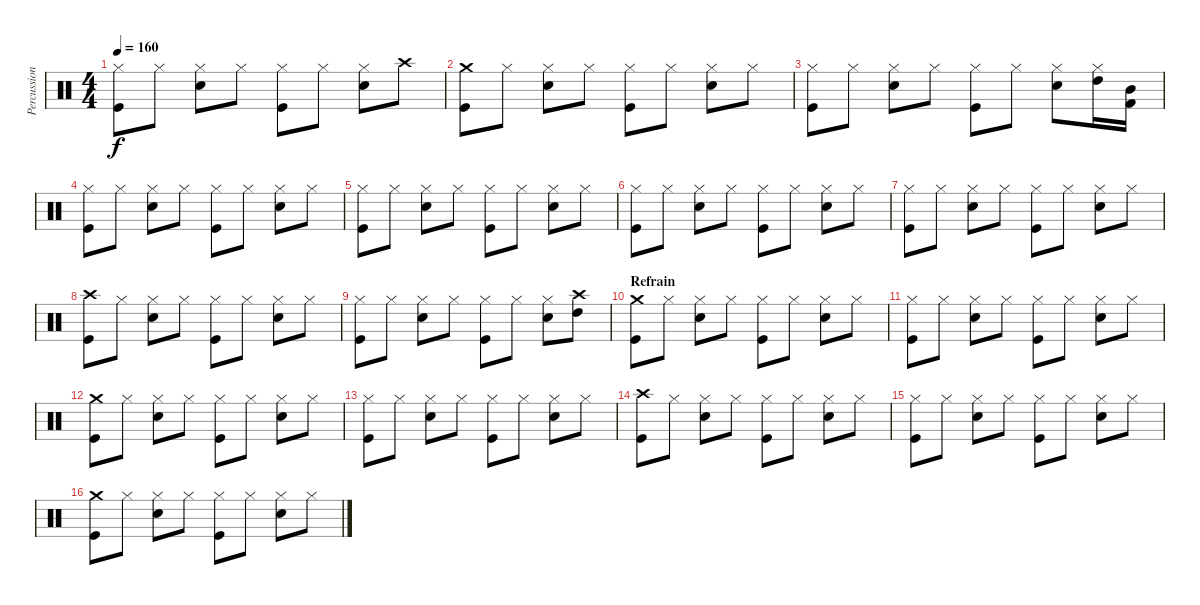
\track ("Percussions" "Percussion") {instrument percussion}
\staff {score}
\articulation defaults
\ts (4 4)
\tempo 160
\clef neutral
\ks c
("Hi-Hat (closed)" "Kick (hit)").8{dy f} "Hi-Hat (closed)".8 ("Hi-Hat (closed)" "Snare (hit) 2").8 "Hi-Hat (closed)".8 ("Hi-Hat (closed)" "Kick (hit)").8 "Hi-Hat (closed)".8 ("Hi-Hat (closed)" "Snare (hit) 2").8 "Crash high (hit)".8 |
("Crash medium (hit)" "Kick (hit)").8 "Hi-Hat (closed)".8 ("Hi-Hat (closed)" "Snare (hit) 2").8 "Hi-Hat (closed)".8 ("Hi-Hat (closed)" "Kick (hit)").8 "Hi-Hat (closed)".8 ("Hi-Hat (closed)" "Snare (hit) 2").8 "Hi-Hat (closed)".8 |
("Hi-Hat (closed)" "Kick (hit)").8 "Hi-Hat (closed)".8 ("Hi-Hat (closed)" "Snare (hit) 2").8 "Hi-Hat (closed)".8 ("Hi-Hat (closed)" "Kick (hit)").8 "Hi-Hat (closed)".8 ("Hi-Hat (closed)" "Snare (hit) 2").8 ("Hi-Hat (closed)" "High Tom (hit)").16 ("Mid Tom (hit)" "Kick (hit) 2").16 |
("Hi-Hat (closed)" "Kick (hit)").8 "Hi-Hat (closed)".8 ("Hi-Hat (closed)" "Snare (hit) 2").8 "Hi-Hat (closed)".8 ("Hi-Hat (closed)" "Kick (hit)").8 "Hi-Hat (closed)".8 ("Hi-Hat (closed)" "Snare (hit) 2").8 "Hi-Hat (closed)".8 |
("Hi-Hat (closed)" "Kick (hit)").8 "Hi-Hat (closed)".8 ("Hi-Hat (closed)" "Snare (hit) 2").8 "Hi-Hat (closed)".8 ("Hi-Hat (closed)" "Kick (hit)").8 "Hi-Hat (closed)".8 ("Hi-Hat (closed)" "Snare (hit) 2").8 "Hi-Hat (closed)".8 |
("Hi-Hat (closed)" "Kick (hit)").8 "Hi-Hat (closed)".8 ("Hi-Hat (closed)" "Snare (hit) 2").8 "Hi-Hat (closed)".8 ("Hi-Hat (closed)" "Kick (hit)").8 "Hi-Hat (closed)".8 ("Hi-Hat (closed)" "Snare (hit) 2").8 "Hi-Hat (closed)".8 |
("Hi-Hat (closed)" "Kick (hit)").8 "Hi-Hat (closed)".8 ("Hi-Hat (closed)" "Snare (hit) 2").8 "Hi-Hat (closed)".8 ("Hi-Hat (closed)" "Kick (hit)").8 "Hi-Hat (closed)".8 ("Hi-Hat (closed)" "Snare (hit) 2").8 "Hi-Hat (closed)".8 |
("Crash high (hit)" "Kick (hit)").8 "Hi-Hat (closed)".8 ("Hi-Hat (closed)" "Snare (hit) 2").8 "Hi-Hat (closed)".8 ("Hi-Hat (closed)" "Kick (hit)").8 "Hi-Hat (closed)".8 ("Hi-Hat (closed)" "Snare (hit) 2").8 "Hi-Hat (closed)".8 |
("Hi-Hat (closed)" "Kick (hit)").8 "Hi-Hat (closed)".8 ("Hi-Hat (closed)" "Snare (hit) 2").8 "Hi-Hat (closed)".8 ("Hi-Hat (closed)" "Kick (hit)").8 "Hi-Hat (closed)".8 ("Hi-Hat (closed)" "Snare (hit) 2").8 ("Crash high (hit)" "High Tom (hit)").8 |
\section ("" "Refrain")
("Crash medium (hit)" "Kick (hit)").8 "Hi-Hat (closed)".8 ("Hi-Hat (closed)" "Snare (hit) 2").8 "Hi-Hat (closed)".8 ("Hi-Hat (closed)" "Kick (hit)").8 "Hi-Hat (closed)".8 ("Hi-Hat (closed)" "Snare (hit) 2").8 "Hi-Hat (closed)".8 |
("Hi-Hat (closed)" "Kick (hit)").8 "Hi-Hat (closed)".8 ("Hi-Hat (closed)" "Snare (hit) 2").8 "Hi-Hat (closed)".8 ("Hi-Hat (closed)" "Kick (hit)").8 "Hi-Hat (closed)".8 ("Hi-Hat (closed)" "Snare (hit) 2").8 "Hi-Hat (closed)".8 |
("Crash medium (hit)" "Kick (hit)").8 "Hi-Hat (closed)".8 ("Hi-Hat (closed)" "Snare (hit) 2").8 "Hi-Hat (closed)".8 ("Hi-Hat (closed)" "Kick (hit)").8 "Hi-Hat (closed)".8 ("Hi-Hat (closed)" "Snare (hit) 2").8 "Hi-Hat (closed)".8 |
("Hi-Hat (closed)" "Kick (hit)").8 "Hi-Hat (closed)".8 ("Hi-Hat (closed)" "Snare (hit) 2").8 "Hi-Hat (closed)".8 ("Hi-Hat (closed)" "Kick (hit)").8 "Hi-Hat (closed)".8 ("Hi-Hat (closed)" "Snare (hit) 2").8 "Hi-Hat (closed)".8 |
("Crash high (hit)" "Kick (hit)").8 "Hi-Hat (closed)".8 ("Hi-Hat (closed)" "Snare (hit) 2").8 "Hi-Hat (closed)".8 ("Hi-Hat (closed)" "Kick (hit)").8 "Hi-Hat (closed)".8 ("Hi-Hat (closed)" "Snare (hit) 2").8 "Hi-Hat (closed)".8 |
("Hi-Hat (closed)" "Kick (hit)").8 "Hi-Hat (closed)".8 ("Hi-Hat (closed)" "Snare (hit) 2").8 "Hi-Hat (closed)".8 ("Hi-Hat (closed)" "Kick (hit)").8 "Hi-Hat (closed)".8 ("Hi-Hat (closed)" "Snare (hit) 2").8 "Hi-Hat (closed)".8 |
("Crash medium (hit)" "Kick (hit)").8 "Hi-Hat (closed)".8 ("Hi-Hat (closed)" "Snare (hit) 2").8 "Hi-Hat (closed)".8 ("Hi-Hat (closed)" "Kick (hit)").8 "Hi-Hat (closed)".8 ("Hi-Hat (closed)" "Snare (hit) 2").8 "Hi-Hat (closed)".8
